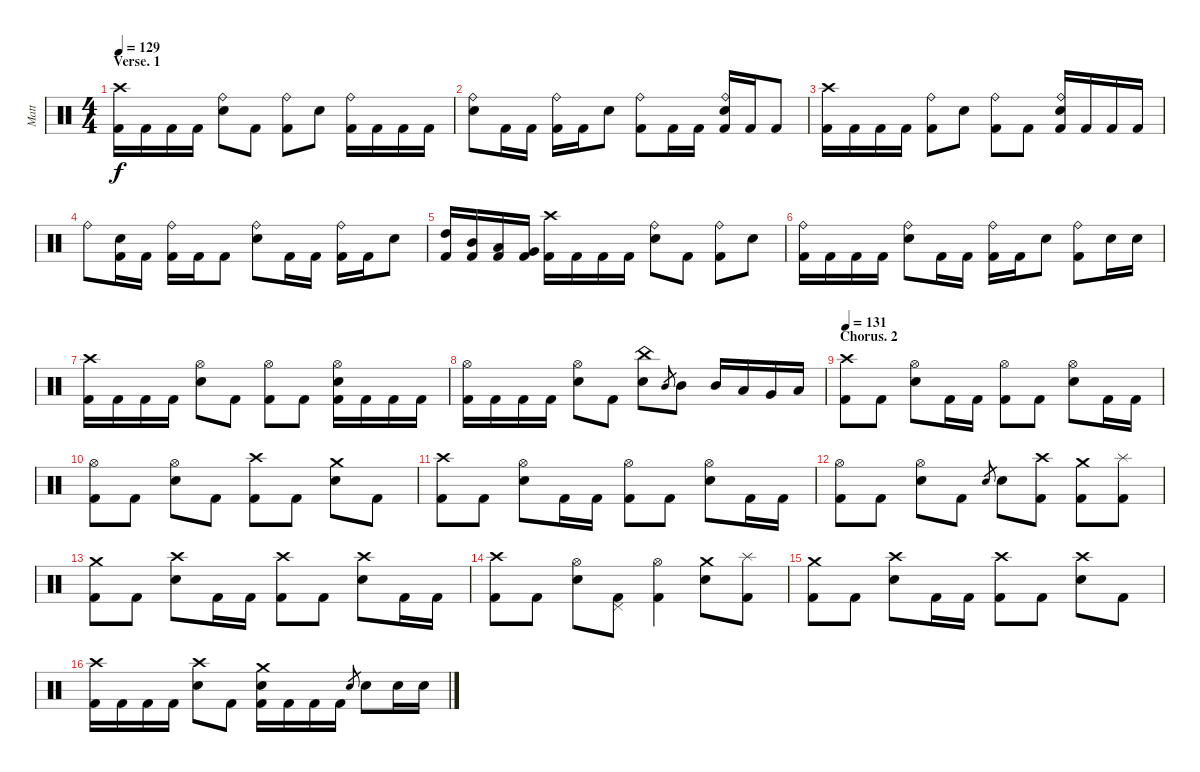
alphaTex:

\track ("Matt" "Matt") {instrument percussion}
\staff {score}
\articulation defaults
\ts (4 4)
\section ("" "Verse. 1")
\tempo 129
\clef neutral
\ks c
("Crash high (hit)" "Kick (hit) 2").16{dy f} "Kick (hit) 2".16 "Kick (hit) 2".16 "Kick (hit) 2".16 ("Ride (bell)" "Electric Snare (hit)").8 "Kick (hit) 2".8 ("Ride (bell)" "Kick (hit) 2").8 "Electric Snare (hit)".8 ("Ride (bell)" "Kick (hit) 2").16 "Kick (hit) 2".16 "Kick (hit) 2".16 "Kick (hit) 2".16 |
("Ride (bell)" "Electric Snare (hit)").8 "Kick (hit) 2".16 "Kick (hit) 2".16 ("Ride (bell)" "Kick (hit) 2").16 "Kick (hit) 2".16 "Electric Snare (hit)".8 ("Ride (bell)" "Kick (hit) 2").8 "Kick (hit) 2".16 "Kick (hit) 2".16 ("Ride (bell)" "Electric Snare (hit)" "Kick (hit) 2").16 "Kick (hit) 2".16 "Kick (hit) 2".8 |
("Crash high (hit)" "Kick (hit) 2").16 "Kick (hit) 2".16 "Kick (hit) 2".16 "Kick (hit) 2".16 ("Ride (bell)" "Kick (hit) 2").8 "Electric Snare (hit)".8 ("Ride (bell)" "Kick (hit) 2").8 "Kick (hit) 2".8 ("Ride (bell)" "Electric Snare (hit)" "Kick (hit) 2").16 "Kick (hit) 2".16 "Kick (hit) 2".16 "Kick (hit) 2".16 |
"Ride (bell)".8 ("Electric Snare (hit)" "Kick (hit) 2").16 "Kick (hit) 2".16 ("Ride (bell)" "Kick (hit) 2").16 "Kick (hit) 2".16 "Kick (hit) 2".8 ("Ride (bell)" "Electric Snare (hit)").8 "Kick (hit) 2".16 "Kick (hit) 2".16 ("Ride (bell)" "Kick (hit) 2").16 "Kick (hit) 2".16 "Electric Snare (hit)".8 |
("High Tom (hit)" "Kick (hit) 2").16 ("Mid Tom (hit)" "Kick (hit) 2").16 ("Low Tom (hit)" "Kick (hit) 2").16 ("Very Low Tom (hit)" "Kick (hit) 2").16 ("Crash high (hit)" "Kick (hit) 2").16 "Kick (hit) 2".16 "Kick (hit) 2".16 "Kick (hit) 2".16 ("Ride (bell)" "Electric Snare (hit)").8 "Kick (hit) 2".8 ("Ride (bell)" "Kick (hit) 2").8 "Electric Snare (hit)".8 |
("Ride (bell)" "Kick (hit) 2").16 "Kick (hit) 2".16 "Kick (hit) 2".16 "Kick (hit) 2".16 ("Ride (bell)" "Electric Snare (hit)").8 "Kick (hit) 2".16 "Kick (hit) 2".16 ("Ride (bell)" "Kick (hit) 2").16 "Kick (hit) 2".16 "Electric Snare (hit)".8 ("Ride (bell)" "Kick (hit) 2").8 "Electric Snare (hit)".16 "Electric Snare (hit)".16 |
("Crash high (hit)" "Kick (hit) 2").16 "Kick (hit) 2".16 "Kick (hit) 2".16 "Kick (hit) 2".16 ("Hi-Hat (open)" "Electric Snare (hit)").8 "Kick (hit) 2".8 ("Hi-Hat (open)" "Kick (hit) 2").8 "Kick (hit) 2".8 ("Hi-Hat (open)" "Electric Snare (hit)" "Kick (hit) 2").16 "Kick (hit) 2".16 "Kick (hit) 2".16 "Kick (hit) 2".16 |
("Hi-Hat (open)" "Kick (hit) 2").16 "Kick (hit) 2".16 "Kick (hit) 2".16 "Kick (hit) 2".16 ("Hi-Hat (open)" "Electric Snare (hit)").8 "Kick (hit) 2".8 ("China (hit)" "Electric Snare (hit)").8 "Mid Tom (hit)".8{gr} "Mid Tom (hit)".8 "Mid Tom (hit)".16 "Low Tom (hit)".16 "Very Low Tom (hit)".16 "Low Floor Tom (hit)".16 |
\section ("" "Chorus. 2")
\tempo 131
("Crash high (hit)" "Kick (hit) 2").8 "Kick (hit) 2".8 ("Hi-Hat (open)" "Electric Snare (hit)").8 "Kick (hit) 2".16 "Kick (hit) 2".16 ("Hi-Hat (open)" "Kick (hit) 2").8 "Kick (hit) 2".8 ("Hi-Hat (open)" "Electric Snare (hit)").8 "Kick (hit) 2".16 "Kick (hit) 2".16 |
("Hi-Hat (open)" "Kick (hit) 2").8 "Kick (hit) 2".8 ("Hi-Hat (open)" "Electric Snare (hit)").8 "Kick (hit) 2".8 ("Crash high (hit)" "Kick (hit) 2").8 "Kick (hit) 2".8 ("Crash medium (hit)" "Electric Snare (hit)").8 "Kick (hit) 2".8 |
("Crash high (hit)" "Kick (hit) 2").8 "Kick (hit) 2".8 ("Hi-Hat (open)" "Electric Snare (hit)").8 "Kick (hit) 2".16 "Kick (hit) 2".16 ("Hi-Hat (open)" "Kick (hit) 2").8 "Kick (hit) 2".8 ("Hi-Hat (open)" "Electric Snare (hit)").8 "Kick (hit) 2".16 "Kick (hit) 2".16 |
("Hi-Hat (open)" "Kick (hit) 2").8 "Kick (hit) 2".8 ("Hi-Hat (open)" "Electric Snare (hit)").8 "Kick (hit) 2".8 "Electric Snare (hit)".8{gr} "Electric Snare (hit)".8 ("Crash high (hit)" "Kick (hit) 2").8 ("Crash medium (hit)" "Kick (hit) 2").8 ("Splash (hit)" "Kick (hit) 2").8 |
("Crash medium (hit)" "Kick (hit) 2").8 "Kick (hit) 2".8 ("Crash high (hit)" "Electric Snare (hit)").8 "Kick (hit) 2".16 "Kick (hit) 2".16 ("Crash high (hit)" "Kick (hit) 2").8 "Kick (hit) 2".8 ("Crash high (hit)" "Electric Snare (hit)").8 "Kick (hit) 2".16 "Kick (hit) 2".16 |
("Crash high (hit)" "Kick (hit) 2").8 "Kick (hit) 2".8 ("Hi-Hat (open)" "Electric Snare (hit)").8 ("Pedal Hi-Hat (hit)" "Kick (hit) 2").8 ("Hi-Hat (open)" "Kick (hit) 2").4 ("Crash medium (hit)" "Electric Snare (hit)").8 ("Splash (hit)" "Kick (hit) 2").8 |
("Crash medium (hit)" "Kick (hit) 2").8 "Kick (hit) 2".8 ("Crash high (hit)" "Electric Snare (hit)").8 "Kick (hit) 2".16 "Kick (hit) 2".16 ("Crash high (hit)" "Kick (hit) 2").8 "Kick (hit) 2".8 ("Crash high (hit)" "Electric Snare (hit)").8 "Kick (hit) 2".8 |
("Crash high (hit)" "Kick (hit) 2").16 "Kick (hit) 2".16 "Kick (hit) 2".16 "Kick (hit) 2".16 ("Crash high (hit)" "Electric Snare (hit)").8 "Kick (hit) 2".8 ("Crash medium (hit)" "Electric Snare (hit)" "Kick (hit) 2").16 "Kick (hit) 2".16 "Kick (hit) 2".16 "Kick (hit) 2".16 "Electric Snare (hit)".8{gr} "Electric Snare (hit)".8 "Electric Snare (hit)".16 "Electric Snare (hit)".16
